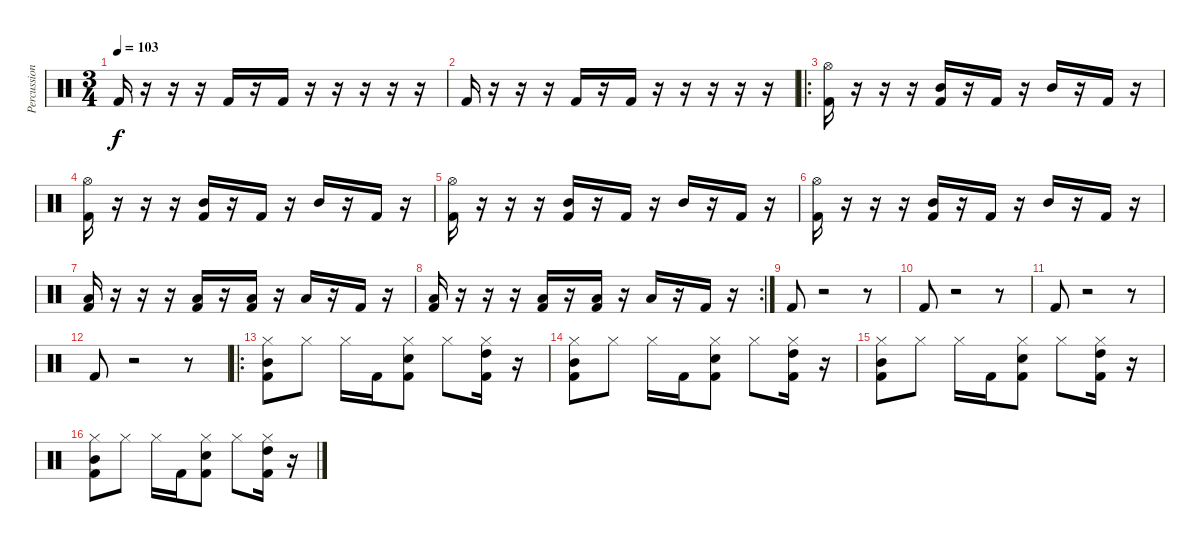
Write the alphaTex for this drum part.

\track ("Percussion" "Percussion") {instrument percussion}
\staff {score}
\articulation defaults
\ts (3 4)
\tempo 103
\clef neutral
\ks c "Kick (hit) 2".16{dy f}
r.16 r.16 r.16 "Kick (hit) 2".16 r.16 "Kick (hit) 2".16 r.16 r.16 r.16 r.16 r.16 |
"Kick (hit) 2".16 r.16 r.16 r.16 "Kick (hit) 2".16 r.16 "Kick (hit) 2".16 r.16 r.16 r.16 r.16 r.16 |
\ro
("Hi-Hat (open)" "Kick (hit) 2").16 r.16 r.16 r.16 ("Mid Tom (hit)" "Kick (hit) 2").16 r.16 "Kick (hit) 2".16 r.16 "Mid Tom (hit)".16 r.16 "Kick (hit) 2".16 r.16 |
("Hi-Hat (open)" "Kick (hit) 2").16 r.16 r.16 r.16 ("Mid Tom (hit)" "Kick (hit) 2").16 r.16 "Kick (hit) 2".16 r.16 "Mid Tom (hit)".16 r.16 "Kick (hit) 2".16 r.16 |
("Hi-Hat (open)" "Kick (hit) 2").16 r.16 r.16 r.16 ("Mid Tom (hit)" "Kick (hit) 2").16 r.16 "Kick (hit) 2".16 r.16 "Mid Tom (hit)".16 r.16 "Kick (hit) 2".16 r.16 |
("Hi-Hat (open)" "Kick (hit) 2").16 r.16 r.16 r.16 ("Mid Tom (hit)" "Kick (hit) 2").16 r.16 "Kick (hit) 2".16 r.16 "Mid Tom (hit)".16 r.16 "Kick (hit) 2".16 r.16 |
("Low Tom (hit)" "Kick (hit) 2").16 r.16 r.16 r.16 ("Low Tom (hit)" "Kick (hit) 2").16 r.16 ("Low Floor Tom (hit)" "Kick (hit) 2").16 r.16 "Low Tom (hit)".16 r.16 "Kick (hit) 2".16 r.16 |
\rc 2
("Low Tom (hit)" "Kick (hit) 2").16 r.16 r.16 r.16 ("Low Tom (hit)" "Kick (hit) 2").16 r.16 ("Low Floor Tom (hit)" "Kick (hit) 2").16 r.16 "Low Tom (hit)".16 r.16 "Kick (hit) 2".16 r.16 |
"Kick (hit) 2".8 r.2 r.8 |
"Kick (hit) 2".8 r.2 r.8 |
"Kick (hit) 2".8 r.2 r.8 |
"Kick (hit) 2".8 r.2 r.8 |
\ro
("Hi-Hat (closed)" "Mid Tom (hit)" "Kick (hit) 2").8 "Hi-Hat (closed)".8 "Hi-Hat (closed)".16 "Kick (hit) 2".16 ("Hi-Hat (closed)" "Snare (hit) 2" "Kick (hit) 2").8 "Hi-Hat (closed)".8 ("Hi-Hat (closed)" "High Tom (hit)" "Kick (hit) 2").16 r.16 |
("Hi-Hat (closed)" "Mid Tom (hit)" "Kick (hit) 2").8 "Hi-Hat (closed)".8 "Hi-Hat (closed)".16 "Kick (hit) 2".16 ("Hi-Hat (closed)" "Snare (hit) 2" "Kick (hit) 2").8 "Hi-Hat (closed)".8 ("Hi-Hat (closed)" "High Tom (hit)" "Kick (hit) 2").16 r.16 |
("Hi-Hat (closed)" "Mid Tom (hit)" "Kick (hit) 2").8 "Hi-Hat (closed)".8 "Hi-Hat (closed)".16 "Kick (hit) 2".16 ("Hi-Hat (closed)" "Snare (hit) 2" "Kick (hit) 2").8 "Hi-Hat (closed)".8 ("Hi-Hat (closed)" "High Tom (hit)" "Kick (hit) 2").16 r.16 |
("Hi-Hat (closed)" "Mid Tom (hit)" "Kick (hit) 2").8 "Hi-Hat (closed)".8 "Hi-Hat (closed)".16 "Kick (hit) 2".16 ("Hi-Hat (closed)" "Snare (hit) 2" "Kick (hit) 2").8 "Hi-Hat (closed)".8 ("Hi-Hat (closed)" "High Tom (hit)" "Kick (hit) 2").16 r.16
